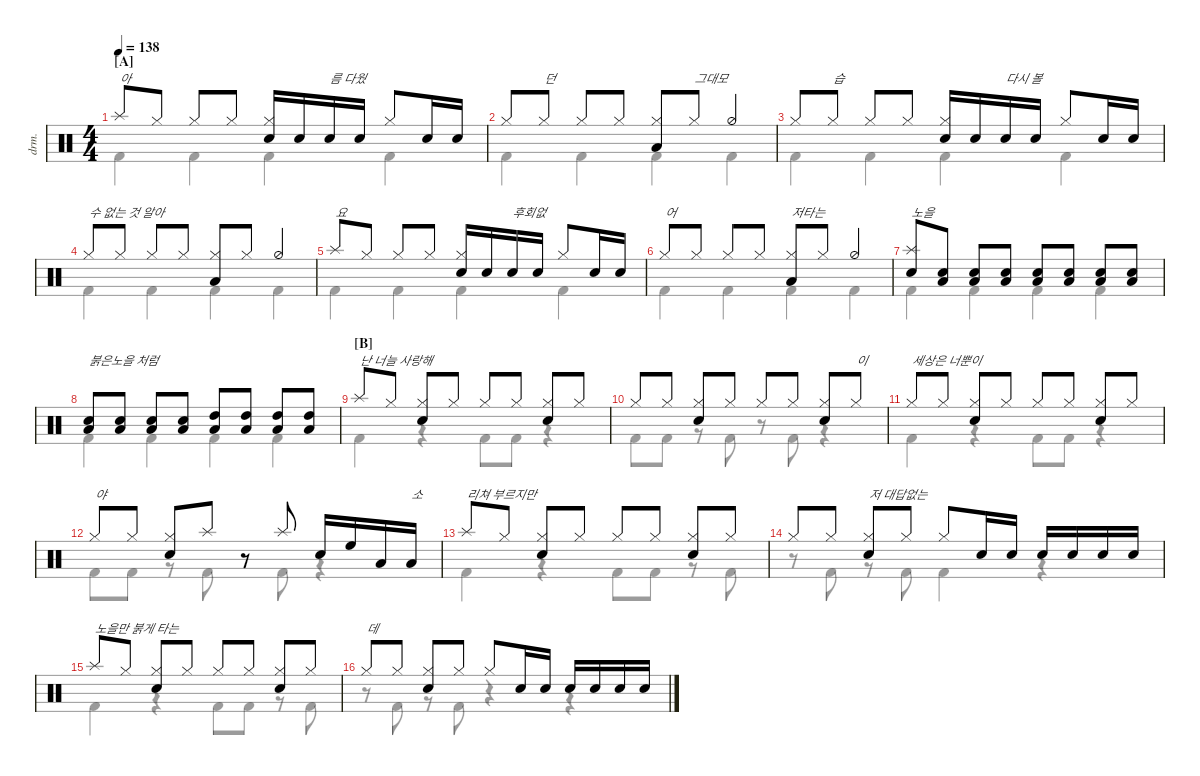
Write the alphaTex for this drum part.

\defaultSystemsLayout 4
\hideDynamics
\bracketExtendMode nobrackets
\track ("Drumkit" "drm.") {instrument percussion}
\staff {score}
\articulation defaults
\voice
\ts (4 4)
\section ("A" "")
\tempo 138
\clef neutral
\ks c "Splash (hit)".8{txt "아" dy mf} "Hi-Hat (closed)".8 "Hi-Hat (closed)".8 "Hi-Hat (closed)".8
("Hi-Hat (closed)" "Snare (hit) 2").16 "Snare (hit) 2".16 "Snare (hit) 2".16{txt "름 다웠"} "Snare (hit) 2".16 "Hi-Hat (closed)".8 "Snare (hit) 2".16 "Snare (hit) 2".16 |
"Hi-Hat (closed)".8 "Hi-Hat (closed)".8{txt "던"} "Hi-Hat (closed)".8 "Hi-Hat (closed)".8 ("Hi-Hat (closed)" "Low Tom (hit)").8 "Hi-Hat (closed)".8{txt "그대모"} "Hi-Hat (half)".4 |
"Hi-Hat (closed)".8 "Hi-Hat (closed)".8{txt "습"} "Hi-Hat (closed)".8 "Hi-Hat (closed)".8 ("Hi-Hat (closed)" "Snare (hit) 2").16 "Snare (hit) 2".16 "Snare (hit) 2".16{txt "다시 볼"} "Snare (hit) 2".16 "Hi-Hat (closed)".8 "Snare (hit) 2".16 "Snare (hit) 2".16 |
"Hi-Hat (closed)".8{txt "수 없는 것 알아"} "Hi-Hat (closed)".8 "Hi-Hat (closed)".8 "Hi-Hat (closed)".8 ("Hi-Hat (closed)" "Low Tom (hit)").8 "Hi-Hat (closed)".8 "Hi-Hat (half)".4 |
"Splash (hit)".8{txt "요"} "Hi-Hat (closed)".8 "Hi-Hat (closed)".8 "Hi-Hat (closed)".8 ("Hi-Hat (closed)" "Snare (hit) 2").16 "Snare (hit) 2".16 "Snare (hit) 2".16{txt "후회없"} "Snare (hit) 2".16 "Hi-Hat (closed)".8 "Snare (hit) 2".16 "Snare (hit) 2".16 |
"Hi-Hat (closed)".8{txt "어"} "Hi-Hat (closed)".8 "Hi-Hat (closed)".8 "Hi-Hat (closed)".8 ("Hi-Hat (closed)" "Low Tom (hit)").8{txt "저타는"} "Hi-Hat (closed)".8 "Hi-Hat (half)".4 |
("Splash (hit)" "Snare (hit) 2").8{txt "노을"} ("Snare (hit) 2" "Low Tom (hit)").8 ("Snare (hit) 2" "Low Tom (hit)").8 ("Snare (hit) 2" "Low Tom (hit)").8 ("Snare (hit) 2" "Low Tom (hit)").8 ("Snare (hit) 2" "Low Tom (hit)").8 ("Snare (hit) 2" "Low Tom (hit)").8 ("Snare (hit) 2" "Low Tom (hit)").8 |
("Snare (hit) 2" "Low Tom (hit)").8{txt "붉은노을 처럼"} ("Snare (hit) 2" "Low Tom (hit)").8 ("Snare (hit) 2" "Low Tom (hit)").8 ("Snare (hit) 2" "Low Tom (hit)").8 ("High Tom (hit)" "Low Tom (hit)").8 ("High Tom (hit)" "Low Tom (hit)").8 ("High Tom (hit)" "Low Tom (hit)").8 ("High Tom (hit)" "Low Tom (hit)").8 |
\section ("B" "")
"Splash (hit)".8{txt "난 너늘 사랑해"} "Hi-Hat (closed)".8 ("Hi-Hat (closed)" "Snare (hit) 2").8 "Hi-Hat (closed)".8 "Hi-Hat (closed)".8 "Hi-Hat (closed)".8 ("Hi-Hat (closed)" "Snare (hit) 2").8 "Hi-Hat (closed)".8 |
"Hi-Hat (closed)".8 "Hi-Hat (closed)".8 ("Hi-Hat (closed)" "Snare (hit) 2").8 "Hi-Hat (closed)".8 "Hi-Hat (closed)".8 "Hi-Hat (closed)".8 ("Hi-Hat (closed)" "Snare (hit) 2").8 "Hi-Hat (closed)".8{txt "이"} |
"Hi-Hat (closed)".8{txt "세상은 너뿐이"} "Hi-Hat (closed)".8 ("Hi-Hat (closed)" "Snare (hit) 2").8 "Hi-Hat (closed)".8 "Hi-Hat (closed)".8 "Hi-Hat (closed)".8 ("Hi-Hat (closed)" "Snare (hit) 2").8 "Hi-Hat (closed)".8 |
"Hi-Hat (closed)".8{txt "야"} "Hi-Hat (closed)".8 ("Hi-Hat (closed)" "Snare (hit) 2").8 "Splash (hit)".8 r.8 "Splash (hit)".8 "Snare (hit) 2".16 "High Floor Tom (hit)".16 "Low Tom (hit)".16 "Low Tom (hit)".16{txt "소"} |
"Splash (hit)".8{txt "리쳐 부르지만"} "Hi-Hat (closed)".8 ("Hi-Hat (closed)" "Snare (hit) 2").8 "Hi-Hat (closed)".8 "Hi-Hat (closed)".8 "Hi-Hat (closed)".8 ("Hi-Hat (closed)" "Snare (hit) 2").8 "Hi-Hat (closed)".8 |
"Hi-Hat (closed)".8 "Hi-Hat (closed)".8 ("Hi-Hat (closed)" "Snare (hit) 2").8{txt "저 대답없는"} "Hi-Hat (closed)".8 "Hi-Hat (closed)".8 "Snare (hit) 2".16 "Snare (hit) 2".16 "Snare (hit) 2".16 "Snare (hit) 2".16 "Snare (hit) 2".16 "Snare (hit) 2".16 |
"Splash (hit)".8{txt "노을만 붉게 타는"} "Hi-Hat (closed)".8 ("Hi-Hat (closed)" "Snare (hit) 2").8 "Hi-Hat (closed)".8 "Hi-Hat (closed)".8 "Hi-Hat (closed)".8 ("Hi-Hat (closed)" "Snare (hit) 2").8 "Hi-Hat (closed)".8 |
"Hi-Hat (closed)".8{txt "데"} "Hi-Hat (closed)".8 ("Hi-Hat (closed)" "Snare (hit) 2").8 "Hi-Hat (closed)".8 "Hi-Hat (closed)".8 "Snare (hit) 2".16 "Snare (hit) 2".16 "Snare (hit) 2".16 "Snare (hit) 2".16 "Snare (hit) 2".16 "Snare (hit) 2".16
\voice
\clef neutral
\ottava regular
\simile none
\ks c
|
|
|
|
|
|
|
|
|
|
|
|
|
|
|
\voice
\clef neutral
\ottava regular
\simile none
\ks c "Kick (hit) 2".4{dy mf} "Kick (hit) 2".4 "Kick (hit) 2".4 "Kick (hit) 2".4
|
"Kick (hit) 2".4 "Kick (hit) 2".4 "Kick (hit) 2".4 "Kick (hit) 2".4 |
"Kick (hit) 2".4 "Kick (hit) 2".4 "Kick (hit) 2".4 "Kick (hit) 2".4 |
"Kick (hit) 2".4 "Kick (hit) 2".4 "Kick (hit) 2".4 "Kick (hit) 2".4 |
"Kick (hit) 2".4 "Kick (hit) 2".4 "Kick (hit) 2".4 "Kick (hit) 2".4 |
"Kick (hit) 2".4 "Kick (hit) 2".4 "Kick (hit) 2".4 "Kick (hit) 2".4 |
"Kick (hit) 2".4 "Kick (hit) 2".4 "Kick (hit) 2".4 "Kick (hit) 2".4 |
"Kick (hit) 2".4 "Kick (hit) 2".4 "Kick (hit) 2".4 "Kick (hit) 2".4 |
"Kick (hit) 2".4 r.4 "Kick (hit) 2".8 "Kick (hit) 2".8 r.4 |
"Kick (hit) 2".8 "Kick (hit) 2".8 r.8 "Kick (hit) 2".8 r.8 "Kick (hit) 2".8 r.4 |
"Kick (hit) 2".4 r.4 "Kick (hit) 2".8 "Kick (hit) 2".8 r.4 |
"Kick (hit) 2".8 "Kick (hit) 2".8 r.8 "Kick (hit) 2".8 r.8 "Kick (hit) 2".8 r.4 |
"Kick (hit) 2".4 r.4 "Kick (hit) 2".8 "Kick (hit) 2".8 r.8 "Kick (hit) 2".8 |
r.8 "Kick (hit) 2".8 r.8 "Kick (hit) 2".8 "Kick (hit) 2".4 r.4 |
"Kick (hit) 2".4 r.4 "Kick (hit) 2".8 "Kick (hit) 2".8 r.8 "Kick (hit) 2".8 |
r.8 "Kick (hit) 2".8 r.8 "Kick (hit) 2".8 r.4 r.4
